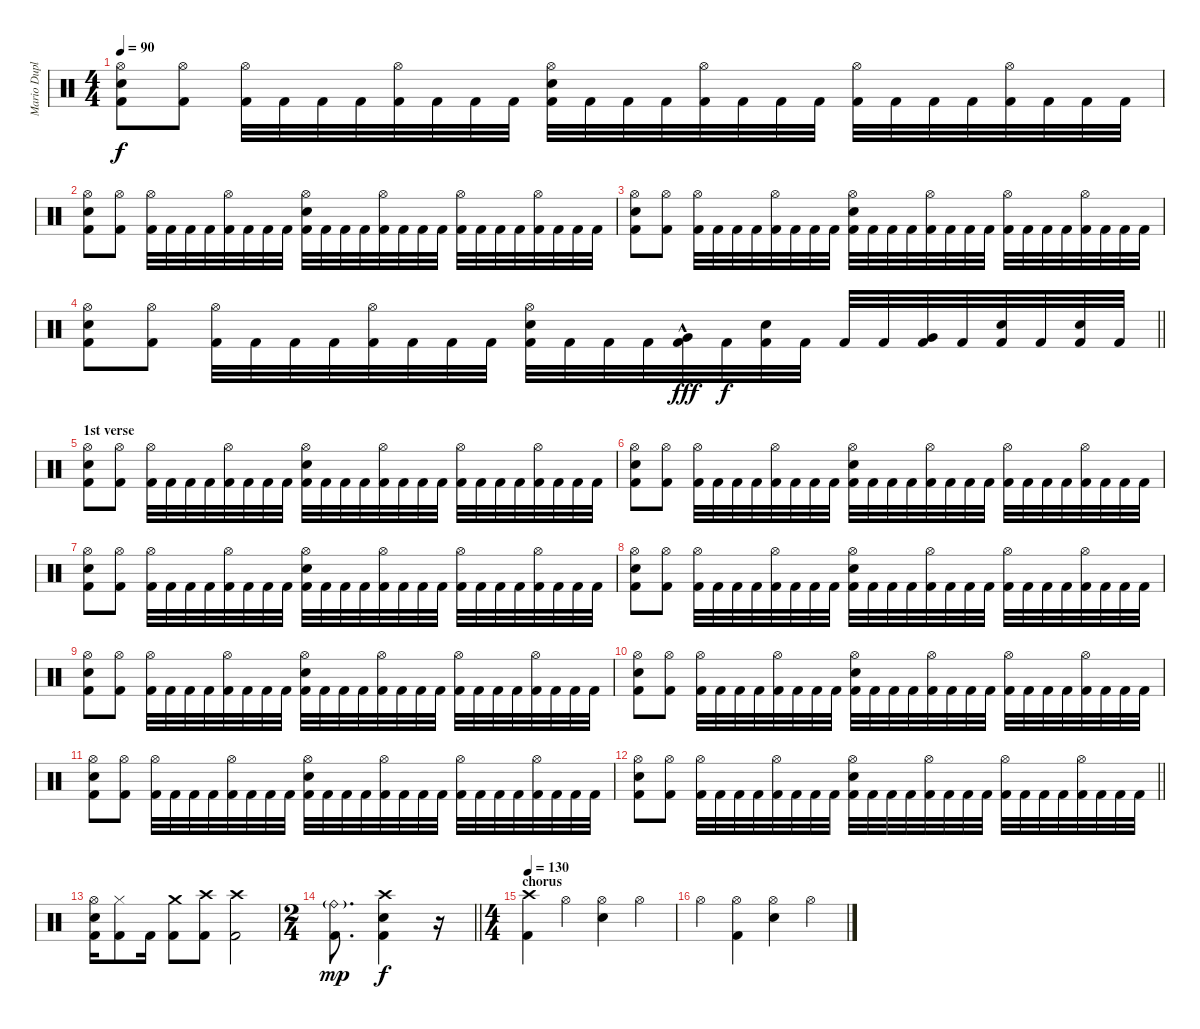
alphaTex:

\track ("Mario Duplantier" "Mario Dupl") {instrument percussion}
\staff {score}
\articulation defaults
\ts (4 4)
\tempo 90
\clef neutral
\ks c
("Hi-Hat (open)" "Electric Snare (hit)" "Kick (hit) 2").8{dy f} ("Hi-Hat (open)" "Kick (hit) 2").8 ("Hi-Hat (open)" "Kick (hit) 2").32 "Kick (hit) 2".32 "Kick (hit) 2".32 "Kick (hit) 2".32 ("Hi-Hat (open)" "Kick (hit) 2").32 "Kick (hit) 2".32 "Kick (hit) 2".32 "Kick (hit) 2".32 ("Hi-Hat (open)" "Electric Snare (hit)" "Kick (hit) 2").32 "Kick (hit) 2".32 "Kick (hit) 2".32 "Kick (hit) 2".32 ("Hi-Hat (open)" "Kick (hit) 2").32 "Kick (hit) 2".32 "Kick (hit) 2".32 "Kick (hit) 2".32 ("Hi-Hat (open)" "Kick (hit) 2").32 "Kick (hit) 2".32 "Kick (hit) 2".32 "Kick (hit) 2".32 ("Hi-Hat (open)" "Kick (hit) 2").32 "Kick (hit) 2".32 "Kick (hit) 2".32 "Kick (hit) 2".32 |
("Hi-Hat (open)" "Electric Snare (hit)" "Kick (hit) 2").8 ("Hi-Hat (open)" "Kick (hit) 2").8 ("Hi-Hat (open)" "Kick (hit) 2").32 "Kick (hit) 2".32 "Kick (hit) 2".32 "Kick (hit) 2".32 ("Hi-Hat (open)" "Kick (hit) 2").32 "Kick (hit) 2".32 "Kick (hit) 2".32 "Kick (hit) 2".32 ("Hi-Hat (open)" "Electric Snare (hit)" "Kick (hit) 2").32 "Kick (hit) 2".32 "Kick (hit) 2".32 "Kick (hit) 2".32 ("Hi-Hat (open)" "Kick (hit) 2").32 "Kick (hit) 2".32 "Kick (hit) 2".32 "Kick (hit) 2".32 ("Hi-Hat (open)" "Kick (hit) 2").32 "Kick (hit) 2".32 "Kick (hit) 2".32 "Kick (hit) 2".32 ("Hi-Hat (open)" "Kick (hit) 2").32 "Kick (hit) 2".32 "Kick (hit) 2".32 "Kick (hit) 2".32 |
("Hi-Hat (open)" "Electric Snare (hit)" "Kick (hit) 2").8 ("Hi-Hat (open)" "Kick (hit) 2").8 ("Hi-Hat (open)" "Kick (hit) 2").32 "Kick (hit) 2".32 "Kick (hit) 2".32 "Kick (hit) 2".32 ("Hi-Hat (open)" "Kick (hit) 2").32 "Kick (hit) 2".32 "Kick (hit) 2".32 "Kick (hit) 2".32 ("Hi-Hat (open)" "Electric Snare (hit)" "Kick (hit) 2").32 "Kick (hit) 2".32 "Kick (hit) 2".32 "Kick (hit) 2".32 ("Hi-Hat (open)" "Kick (hit) 2").32 "Kick (hit) 2".32 "Kick (hit) 2".32 "Kick (hit) 2".32 ("Hi-Hat (open)" "Kick (hit) 2").32 "Kick (hit) 2".32 "Kick (hit) 2".32 "Kick (hit) 2".32 ("Hi-Hat (open)" "Kick (hit) 2").32 "Kick (hit) 2".32 "Kick (hit) 2".32 "Kick (hit) 2".32 |
\barLineRight lightlight
("Hi-Hat (open)" "Electric Snare (hit)" "Kick (hit) 2").8 ("Hi-Hat (open)" "Kick (hit) 2").8 ("Hi-Hat (open)" "Kick (hit) 2").32 "Kick (hit) 2".32 "Kick (hit) 2".32 "Kick (hit) 2".32 ("Hi-Hat (open)" "Kick (hit) 2").32 "Kick (hit) 2".32 "Kick (hit) 2".32 "Kick (hit) 2".32 ("Hi-Hat (open)" "Electric Snare (hit)" "Kick (hit) 2").32 "Kick (hit) 2".32 "Kick (hit) 2".32 "Kick (hit) 2".32 ("Kick (hit) 2" "Very Low Tom (hit)"{hac}).32{dy fff} "Kick (hit) 2".32{dy f} ("Kick (hit) 2" "Electric Snare (hit)").32 "Kick (hit) 2".32 "Kick (hit) 2".32 "Kick (hit) 2".32 ("Kick (hit) 2" "Very Low Tom (hit)").32 "Kick (hit) 2".32 ("Kick (hit) 2" "Electric Snare (hit)").32 "Kick (hit) 2".32 ("Kick (hit) 2" "Electric Snare (hit)").32 "Kick (hit) 2".32 |
\section ("" "1st verse")
("Hi-Hat (open)" "Electric Snare (hit)" "Kick (hit) 2").8 ("Hi-Hat (open)" "Kick (hit) 2").8 ("Hi-Hat (open)" "Kick (hit) 2").32 "Kick (hit) 2".32 "Kick (hit) 2".32 "Kick (hit) 2".32 ("Hi-Hat (open)" "Kick (hit) 2").32 "Kick (hit) 2".32 "Kick (hit) 2".32 "Kick (hit) 2".32 ("Hi-Hat (open)" "Electric Snare (hit)" "Kick (hit) 2").32 "Kick (hit) 2".32 "Kick (hit) 2".32 "Kick (hit) 2".32 ("Hi-Hat (open)" "Kick (hit) 2").32 "Kick (hit) 2".32 "Kick (hit) 2".32 "Kick (hit) 2".32 ("Hi-Hat (open)" "Kick (hit) 2").32 "Kick (hit) 2".32 "Kick (hit) 2".32 "Kick (hit) 2".32 ("Hi-Hat (open)" "Kick (hit) 2").32 "Kick (hit) 2".32 "Kick (hit) 2".32 "Kick (hit) 2".32 |
("Hi-Hat (open)" "Electric Snare (hit)" "Kick (hit) 2").8 ("Hi-Hat (open)" "Kick (hit) 2").8 ("Hi-Hat (open)" "Kick (hit) 2").32 "Kick (hit) 2".32 "Kick (hit) 2".32 "Kick (hit) 2".32 ("Hi-Hat (open)" "Kick (hit) 2").32 "Kick (hit) 2".32 "Kick (hit) 2".32 "Kick (hit) 2".32 ("Hi-Hat (open)" "Electric Snare (hit)" "Kick (hit) 2").32 "Kick (hit) 2".32 "Kick (hit) 2".32 "Kick (hit) 2".32 ("Hi-Hat (open)" "Kick (hit) 2").32 "Kick (hit) 2".32 "Kick (hit) 2".32 "Kick (hit) 2".32 ("Hi-Hat (open)" "Kick (hit) 2").32 "Kick (hit) 2".32 "Kick (hit) 2".32 "Kick (hit) 2".32 ("Hi-Hat (open)" "Kick (hit) 2").32 "Kick (hit) 2".32 "Kick (hit) 2".32 "Kick (hit) 2".32 |
("Hi-Hat (open)" "Electric Snare (hit)" "Kick (hit) 2").8 ("Hi-Hat (open)" "Kick (hit) 2").8 ("Hi-Hat (open)" "Kick (hit) 2").32 "Kick (hit) 2".32 "Kick (hit) 2".32 "Kick (hit) 2".32 ("Hi-Hat (open)" "Kick (hit) 2").32 "Kick (hit) 2".32 "Kick (hit) 2".32 "Kick (hit) 2".32 ("Hi-Hat (open)" "Electric Snare (hit)" "Kick (hit) 2").32 "Kick (hit) 2".32 "Kick (hit) 2".32 "Kick (hit) 2".32 ("Hi-Hat (open)" "Kick (hit) 2").32 "Kick (hit) 2".32 "Kick (hit) 2".32 "Kick (hit) 2".32 ("Hi-Hat (open)" "Kick (hit) 2").32 "Kick (hit) 2".32 "Kick (hit) 2".32 "Kick (hit) 2".32 ("Hi-Hat (open)" "Kick (hit) 2").32 "Kick (hit) 2".32 "Kick (hit) 2".32 "Kick (hit) 2".32 |
("Hi-Hat (open)" "Electric Snare (hit)" "Kick (hit) 2").8 ("Hi-Hat (open)" "Kick (hit) 2").8 ("Hi-Hat (open)" "Kick (hit) 2").32 "Kick (hit) 2".32 "Kick (hit) 2".32 "Kick (hit) 2".32 ("Hi-Hat (open)" "Kick (hit) 2").32 "Kick (hit) 2".32 "Kick (hit) 2".32 "Kick (hit) 2".32 ("Hi-Hat (open)" "Electric Snare (hit)" "Kick (hit) 2").32 "Kick (hit) 2".32 "Kick (hit) 2".32 "Kick (hit) 2".32 ("Hi-Hat (open)" "Kick (hit) 2").32 "Kick (hit) 2".32 "Kick (hit) 2".32 "Kick (hit) 2".32 ("Hi-Hat (open)" "Kick (hit) 2").32 "Kick (hit) 2".32 "Kick (hit) 2".32 "Kick (hit) 2".32 ("Hi-Hat (open)" "Kick (hit) 2").32 "Kick (hit) 2".32 "Kick (hit) 2".32 "Kick (hit) 2".32 |
("Hi-Hat (open)" "Electric Snare (hit)" "Kick (hit) 2").8 ("Hi-Hat (open)" "Kick (hit) 2").8 ("Hi-Hat (open)" "Kick (hit) 2").32 "Kick (hit) 2".32 "Kick (hit) 2".32 "Kick (hit) 2".32 ("Hi-Hat (open)" "Kick (hit) 2").32 "Kick (hit) 2".32 "Kick (hit) 2".32 "Kick (hit) 2".32 ("Hi-Hat (open)" "Electric Snare (hit)" "Kick (hit) 2").32 "Kick (hit) 2".32 "Kick (hit) 2".32 "Kick (hit) 2".32 ("Hi-Hat (open)" "Kick (hit) 2").32 "Kick (hit) 2".32 "Kick (hit) 2".32 "Kick (hit) 2".32 ("Hi-Hat (open)" "Kick (hit) 2").32 "Kick (hit) 2".32 "Kick (hit) 2".32 "Kick (hit) 2".32 ("Hi-Hat (open)" "Kick (hit) 2").32 "Kick (hit) 2".32 "Kick (hit) 2".32 "Kick (hit) 2".32 |
("Hi-Hat (open)" "Electric Snare (hit)" "Kick (hit) 2").8 ("Hi-Hat (open)" "Kick (hit) 2").8 ("Hi-Hat (open)" "Kick (hit) 2").32 "Kick (hit) 2".32 "Kick (hit) 2".32 "Kick (hit) 2".32 ("Hi-Hat (open)" "Kick (hit) 2").32 "Kick (hit) 2".32 "Kick (hit) 2".32 "Kick (hit) 2".32 ("Hi-Hat (open)" "Electric Snare (hit)" "Kick (hit) 2").32 "Kick (hit) 2".32 "Kick (hit) 2".32 "Kick (hit) 2".32 ("Hi-Hat (open)" "Kick (hit) 2").32 "Kick (hit) 2".32 "Kick (hit) 2".32 "Kick (hit) 2".32 ("Hi-Hat (open)" "Kick (hit) 2").32 "Kick (hit) 2".32 "Kick (hit) 2".32 "Kick (hit) 2".32 ("Hi-Hat (open)" "Kick (hit) 2").32 "Kick (hit) 2".32 "Kick (hit) 2".32 "Kick (hit) 2".32 |
("Hi-Hat (open)" "Electric Snare (hit)" "Kick (hit) 2").8 ("Hi-Hat (open)" "Kick (hit) 2").8 ("Hi-Hat (open)" "Kick (hit) 2").32 "Kick (hit) 2".32 "Kick (hit) 2".32 "Kick (hit) 2".32 ("Hi-Hat (open)" "Kick (hit) 2").32 "Kick (hit) 2".32 "Kick (hit) 2".32 "Kick (hit) 2".32 ("Hi-Hat (open)" "Electric Snare (hit)" "Kick (hit) 2").32 "Kick (hit) 2".32 "Kick (hit) 2".32 "Kick (hit) 2".32 ("Hi-Hat (open)" "Kick (hit) 2").32 "Kick (hit) 2".32 "Kick (hit) 2".32 "Kick (hit) 2".32 ("Hi-Hat (open)" "Kick (hit) 2").32 "Kick (hit) 2".32 "Kick (hit) 2".32 "Kick (hit) 2".32 ("Hi-Hat (open)" "Kick (hit) 2").32 "Kick (hit) 2".32 "Kick (hit) 2".32 "Kick (hit) 2".32 |
\barLineRight lightlight
("Hi-Hat (open)" "Electric Snare (hit)" "Kick (hit) 2").8 ("Hi-Hat (open)" "Kick (hit) 2").8 ("Hi-Hat (open)" "Kick (hit) 2").32 "Kick (hit) 2".32 "Kick (hit) 2".32 "Kick (hit) 2".32 ("Hi-Hat (open)" "Kick (hit) 2").32 "Kick (hit) 2".32 "Kick (hit) 2".32 "Kick (hit) 2".32 ("Hi-Hat (open)" "Electric Snare (hit)" "Kick (hit) 2").32 "Kick (hit) 2".32 "Kick (hit) 2".32 "Kick (hit) 2".32 ("Hi-Hat (open)" "Kick (hit) 2").32 "Kick (hit) 2".32 "Kick (hit) 2".32 "Kick (hit) 2".32 ("Hi-Hat (open)" "Kick (hit) 2").32 "Kick (hit) 2".32 "Kick (hit) 2".32 "Kick (hit) 2".32 ("Hi-Hat (open)" "Kick (hit) 2").32 "Kick (hit) 2".32 "Kick (hit) 2".32 "Kick (hit) 2".32 |
\section ("" "")
("Hi-Hat (open)" "Electric Snare (hit)" "Kick (hit) 2").16 ("Hi-Hat (closed)" "Kick (hit) 2").8 "Kick (hit) 2".16 ("Crash medium (hit)" "Kick (hit) 2").8 ("Crash high (hit)" "Kick (hit) 2").8 ("Crash high (hit)" "Kick (hit) 2").2 |
\ts (2 4)
\barLineRight lightlight
("Ride (bell)"{g} "Kick (hit) 2").8{d dy mp} ("Crash high (hit)" "Electric Snare (hit)" "Kick (hit) 2").4{dy f} r.16 |
\ts (4 4)
\section ("" "chorus")
\tempo 130
("Crash high (hit)" "Kick (hit) 2").4 "Hi-Hat (open)".4 ("Hi-Hat (open)" "Electric Snare (hit)").4 "Hi-Hat (open)".4 |
"Hi-Hat (open)".4 ("Hi-Hat (open)" "Kick (hit) 2").4 ("Hi-Hat (open)" "Electric Snare (hit)").4 "Hi-Hat (open)".4
